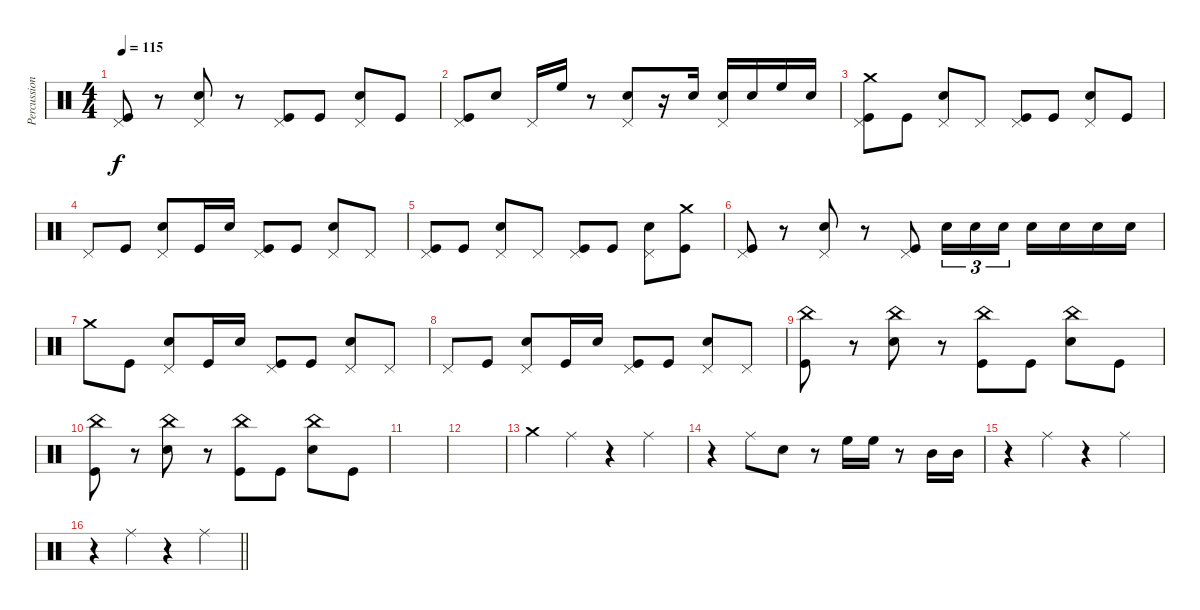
\track ("Percussion" "Percussion") {instrument percussion}
\staff {score}
\articulation defaults
\ts (4 4)
\tempo 115
\clef neutral
\ks c
("Pedal Hi-Hat (hit)" "Kick (hit)").8{dy f} r.8 ("Pedal Hi-Hat (hit)" "Snare (hit) 2").8 r.8 ("Pedal Hi-Hat (hit)" "Kick (hit)").8 "Kick (hit)".8 ("Pedal Hi-Hat (hit)" "Snare (hit) 2").8 "Kick (hit)".8 |
("Pedal Hi-Hat (hit)" "Kick (hit)").8 "Snare (hit) 2".8 "Pedal Hi-Hat (hit)".16 "High Floor Tom (hit)".16 r.8 ("Pedal Hi-Hat (hit)" "Snare (hit) 2").8 r.16 "Snare (hit) 2".16 ("Pedal Hi-Hat (hit)" "Snare (hit) 2").16 "Snare (hit) 2".16 "High Floor Tom (hit)".16 "Snare (hit) 2".16 |
("Crash medium (hit)" "Pedal Hi-Hat (hit)" "Kick (hit)").8 "Kick (hit)".8 ("Pedal Hi-Hat (hit)" "Snare (hit) 2").8 "Pedal Hi-Hat (hit)".8 ("Pedal Hi-Hat (hit)" "Kick (hit)").8 "Kick (hit)".8 ("Pedal Hi-Hat (hit)" "Snare (hit) 2").8 "Kick (hit)".8 |
"Pedal Hi-Hat (hit)".8 "Kick (hit)".8 ("Pedal Hi-Hat (hit)" "Snare (hit) 2").8 "Kick (hit)".16 "Snare (hit) 2".16 ("Pedal Hi-Hat (hit)" "Kick (hit)").8 "Kick (hit)".8 ("Pedal Hi-Hat (hit)" "Snare (hit) 2").8 "Pedal Hi-Hat (hit)".8 |
("Pedal Hi-Hat (hit)" "Kick (hit)").8 "Kick (hit)".8 ("Pedal Hi-Hat (hit)" "Snare (hit) 2").8 "Pedal Hi-Hat (hit)".8 ("Pedal Hi-Hat (hit)" "Kick (hit)").8 "Kick (hit)".8 ("Pedal Hi-Hat (hit)" "Snare (hit) 2").8 ("Crash medium (hit)" "Kick (hit)").8 |
("Pedal Hi-Hat (hit)" "Kick (hit)").8 r.8 ("Pedal Hi-Hat (hit)" "Snare (hit) 2").8 r.8 ("Pedal Hi-Hat (hit)" "Kick (hit)").8 "Snare (hit) 2".16{tu (3 2)} "Snare (hit) 2".16{tu (3 2)} "Snare (hit) 2".16{tu (3 2)} "Snare (hit) 2".16 "Snare (hit) 2".16 "Snare (hit) 2".16 "Snare (hit) 2".16 |
"Crash medium (hit)".8 "Kick (hit)".8 ("Pedal Hi-Hat (hit)" "Snare (hit) 2").8 "Kick (hit)".16 "Snare (hit) 2".16 ("Pedal Hi-Hat (hit)" "Kick (hit)").8 "Kick (hit)".8 ("Pedal Hi-Hat (hit)" "Snare (hit) 2").8 "Pedal Hi-Hat (hit)".8 |
"Pedal Hi-Hat (hit)".8 "Kick (hit)".8 ("Pedal Hi-Hat (hit)" "Snare (hit) 2").8 "Kick (hit)".16 "Snare (hit) 2".16 ("Pedal Hi-Hat (hit)" "Kick (hit)").8 "Kick (hit)".8 ("Pedal Hi-Hat (hit)" "Snare (hit) 2").8 "Pedal Hi-Hat (hit)".8 |
("China (hit)" "Kick (hit)").8 r.8 ("China (hit)" "Snare (hit) 2").8 r.8 ("China (hit)" "Kick (hit)").8 "Kick (hit)".8 ("China (hit)" "Snare (hit) 2").8 "Kick (hit)".8 |
("China (hit)" "Kick (hit)").8 r.8 ("China (hit)" "Snare (hit) 2").8 r.8 ("China (hit)" "Kick (hit)").8 "Kick (hit)".8 ("China (hit)" "Snare (hit) 2").8 "Kick (hit)".8 |
|
|
"Crash medium (hit)".4 "Ride (middle)".4 r.4 "Ride (middle)".4 |
r.4 "Ride (middle)".8 "Snare (hit) 2".8 r.8 "High Floor Tom (hit)".16 "High Floor Tom (hit)".16 r.8 "Mid Tom (hit)".16 "Mid Tom (hit)".16 |
r.4 "Ride (middle)".4 r.4 "Ride (middle)".4 |
\barLineRight lightlight
r.4 "Ride (middle)".4 r.4 "Ride (middle)".4
